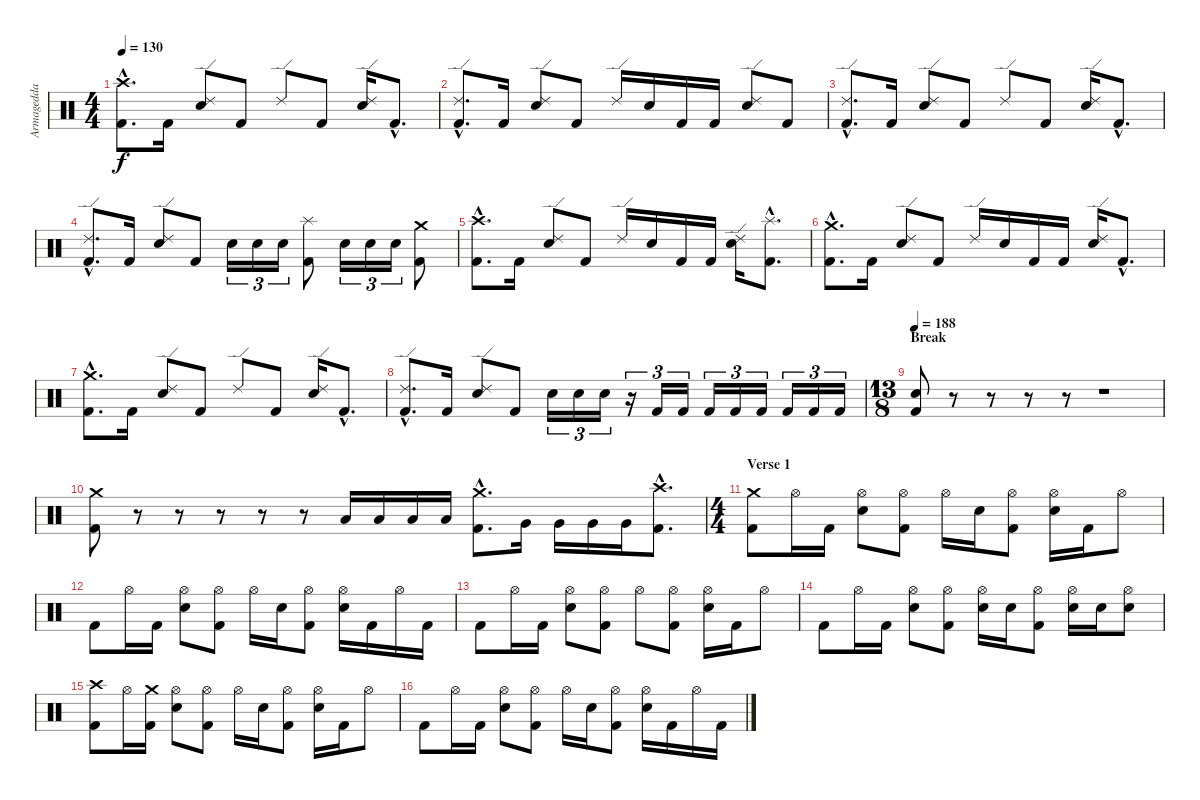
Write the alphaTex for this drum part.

\track ("Armagedda" "Armagedda") {instrument percussion}
\staff {score}
\articulation defaults
\ts (4 4)
\tempo 130
\clef neutral
\ks c
("Crash high (hit)"{hac} "Kick (hit) 2"{hac}).8{d dy f} "Kick (hit) 2".16 ("Ride (edge) 2" "Electric Snare (hit)").8 "Kick (hit) 2".8 "Ride (edge) 2".8 "Kick (hit) 2".8 ("Ride (edge) 2" "Electric Snare (hit)").16 "Kick (hit) 2"{hac}.8{d} |
("Ride (edge) 2"{hac} "Kick (hit) 2"{hac}).8{d} "Kick (hit) 2".16 ("Ride (edge) 2" "Electric Snare (hit)").8 "Kick (hit) 2".8 "Ride (edge) 2".16 "Electric Snare (hit)".16 "Kick (hit) 2".16 "Kick (hit) 2".16 ("Ride (edge) 2" "Electric Snare (hit)").8 "Kick (hit) 2".8 |
("Ride (edge) 2"{hac} "Kick (hit) 2"{hac}).8{d} "Kick (hit) 2".16 ("Ride (edge) 2" "Electric Snare (hit)").8 "Kick (hit) 2".8 "Ride (edge) 2".8 "Kick (hit) 2".8 ("Ride (edge) 2" "Electric Snare (hit)").16 "Kick (hit) 2"{hac}.8{d} |
("Ride (edge) 2"{hac} "Kick (hit) 2"{hac}).8{d} "Kick (hit) 2".16 ("Ride (edge) 2" "Electric Snare (hit)").8 "Kick (hit) 2".8 "Electric Snare (hit)".16{tu (3 2)} "Electric Snare (hit)".16{tu (3 2)} "Electric Snare (hit)".16{tu (3 2)} ("Splash (hit)" "Kick (hit) 2").8 "Electric Snare (hit)".16{tu (3 2)} "Electric Snare (hit)".16{tu (3 2)} "Electric Snare (hit)".16{tu (3 2)} ("Crash medium (hit)" "Kick (hit) 2").8 |
("Crash high (hit)"{hac} "Kick (hit) 2"{hac}).8{d} "Kick (hit) 2".16 ("Ride (edge) 2" "Electric Snare (hit)").8 "Kick (hit) 2".8 "Ride (edge) 2".16 "Electric Snare (hit)".16 "Kick (hit) 2".16 "Kick (hit) 2".16 ("Ride (edge) 2" "Electric Snare (hit)").16 ("Splash (hit)"{hac} "Kick (hit) 2"{hac}).8{d} |
("Crash medium (hit)"{hac} "Kick (hit) 2"{hac}).8{d} "Kick (hit) 2".16 ("Ride (edge) 2" "Electric Snare (hit)").8 "Kick (hit) 2".8 "Ride (edge) 2".16 "Electric Snare (hit)".16 "Kick (hit) 2".16 "Kick (hit) 2".16 ("Ride (edge) 2" "Electric Snare (hit)").16 "Kick (hit) 2"{hac}.8{d} |
("Crash medium (hit)"{hac} "Kick (hit) 2"{hac}).8{d} "Kick (hit) 2".16 ("Ride (edge) 2" "Electric Snare (hit)").8 "Kick (hit) 2".8 "Ride (edge) 2".8 "Kick (hit) 2".8 ("Ride (edge) 2" "Electric Snare (hit)").16 "Kick (hit) 2"{hac}.8{d} |
("Ride (edge) 2"{hac} "Kick (hit) 2"{hac}).8{d} "Kick (hit) 2".16 ("Ride (edge) 2" "Electric Snare (hit)").8 "Kick (hit) 2".8 "Electric Snare (hit)".16{tu (3 2)} "Electric Snare (hit)".16{tu (3 2)} "Electric Snare (hit)".16{tu (3 2)} r.16{tu (3 2)} "Kick (hit) 2".16{tu (3 2)} "Kick (hit) 2".16{tu (3 2)} "Kick (hit) 2".16{tu (3 2)} "Kick (hit) 2".16{tu (3 2)} "Kick (hit) 2".16{tu (3 2)} "Kick (hit) 2".16{tu (3 2)} "Kick (hit) 2".16{tu (3 2)} "Kick (hit) 2".16{tu (3 2)} |
\ts (13 8)
\section ("" "Break")
\tempo 188
("Electric Snare (hit)" "Kick (hit) 2").8 r.8 r.8 r.8 r.8 r.1 |
("Crash medium (hit)" "Kick (hit) 2").8 r.8 r.8 r.8 r.8 r.8 "Low Tom (hit)".16 "Low Tom (hit)".16 "Low Tom (hit)".16 "Low Tom (hit)".16 ("Crash medium (hit)"{hac} "Kick (hit) 2"{hac}).8{d} "Very Low Tom (hit)".16 "Very Low Tom (hit)".16 "Very Low Tom (hit)".16 "Very Low Tom (hit)".16 ("Crash high (hit)"{hac} "Kick (hit) 2"{hac}).8{d} |
\ts (4 4)
\section ("" "Verse 1")
("Crash medium (hit)" "Kick (hit) 2").8 "Hi-Hat (open)".16 "Kick (hit) 2".16 ("Hi-Hat (open)" "Electric Snare (hit)").8 ("Hi-Hat (open)" "Kick (hit) 2").8 "Hi-Hat (open)".16 "Electric Snare (hit)".16 ("Hi-Hat (open)" "Kick (hit) 2").8 ("Hi-Hat (open)" "Electric Snare (hit)").16 "Kick (hit) 2".16 "Hi-Hat (open)".8 |
"Kick (hit) 2".8 "Hi-Hat (open)".16 "Kick (hit) 2".16 ("Hi-Hat (open)" "Electric Snare (hit)").8 ("Hi-Hat (open)" "Kick (hit) 2").8 "Hi-Hat (open)".16 "Electric Snare (hit)".16 ("Hi-Hat (open)" "Kick (hit) 2").8 ("Hi-Hat (open)" "Electric Snare (hit)").16 "Kick (hit) 2".16 "Hi-Hat (open)".16 "Kick (hit) 2".16 |
"Kick (hit) 2".8 "Hi-Hat (open)".16 "Kick (hit) 2".16 ("Hi-Hat (open)" "Electric Snare (hit)").8 ("Hi-Hat (open)" "Kick (hit) 2").8 "Hi-Hat (open)".8 ("Hi-Hat (open)" "Kick (hit) 2").8 ("Hi-Hat (open)" "Electric Snare (hit)").16 "Kick (hit) 2".16 "Hi-Hat (open)".8 |
"Kick (hit) 2".8 "Hi-Hat (open)".16 "Kick (hit) 2".16 ("Hi-Hat (open)" "Electric Snare (hit)").8 ("Hi-Hat (open)" "Kick (hit) 2").8 ("Hi-Hat (open)" "Electric Snare (hit)").16 "Electric Snare (hit)".16 ("Hi-Hat (open)" "Kick (hit) 2").8 ("Hi-Hat (open)" "Electric Snare (hit)").16 "Electric Snare (hit)".16 ("Hi-Hat (open)" "Electric Snare (hit)").8 |
("Crash high (hit)" "Kick (hit) 2").8 "Hi-Hat (open)".16 ("Crash medium (hit)" "Kick (hit) 2").16 ("Hi-Hat (open)" "Electric Snare (hit)").8 ("Hi-Hat (open)" "Kick (hit) 2").8 "Hi-Hat (open)".16 "Electric Snare (hit)".16 ("Hi-Hat (open)" "Kick (hit) 2").8 ("Hi-Hat (open)" "Electric Snare (hit)").16 "Kick (hit) 2".16 "Hi-Hat (open)".8 |
"Kick (hit) 2".8 "Hi-Hat (open)".16 "Kick (hit) 2".16 ("Hi-Hat (open)" "Electric Snare (hit)").8 ("Hi-Hat (open)" "Kick (hit) 2").8 "Hi-Hat (open)".16 "Electric Snare (hit)".16 ("Hi-Hat (open)" "Kick (hit) 2").8 ("Hi-Hat (open)" "Electric Snare (hit)").16 "Kick (hit) 2".16 "Hi-Hat (open)".16 "Kick (hit) 2".16
